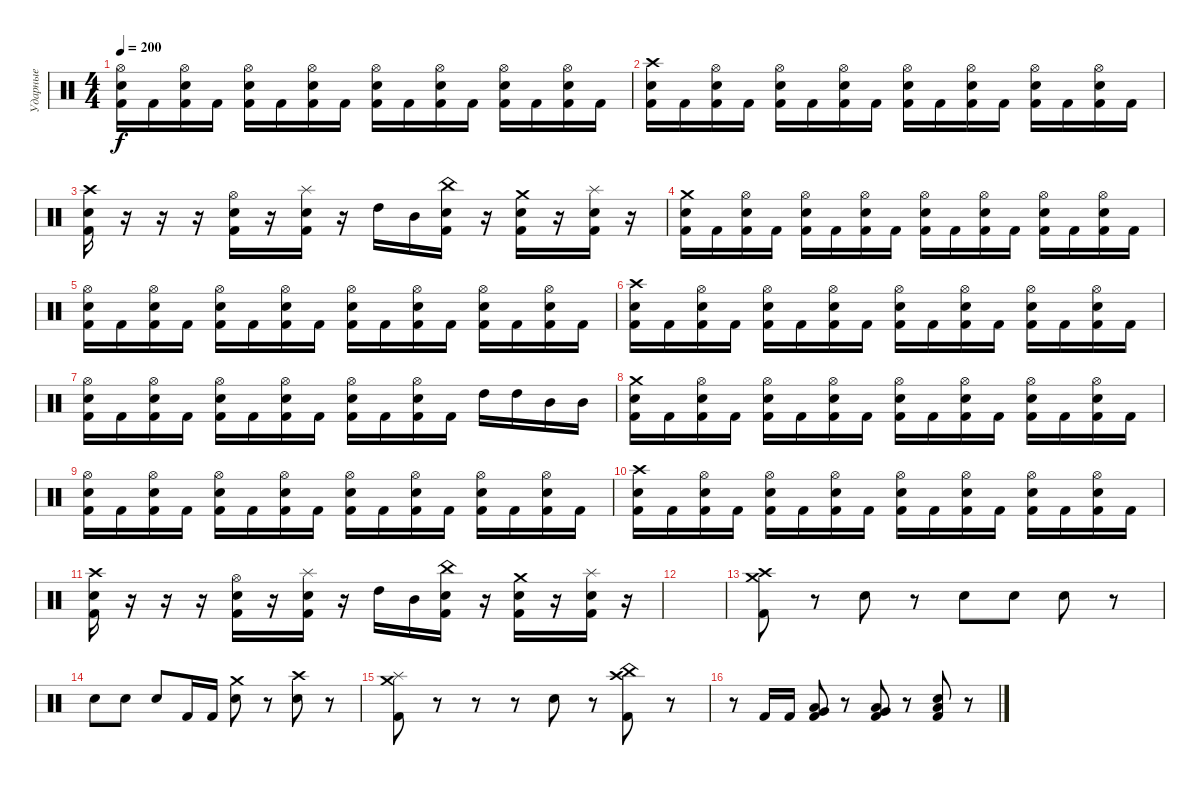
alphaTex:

\track ("Ударные" "Ударные") {instrument percussion}
\staff {score}
\articulation defaults
\ts (4 4)
\tempo 200
\clef neutral
\ks c
("Kick (hit) 2" "Electric Snare (hit)" "Hi-Hat (open)").16{dy f} "Kick (hit) 2".16 ("Kick (hit) 2" "Electric Snare (hit)" "Hi-Hat (open)").16 "Kick (hit) 2".16 ("Kick (hit) 2" "Electric Snare (hit)" "Hi-Hat (open)").16 "Kick (hit) 2".16 ("Kick (hit) 2" "Electric Snare (hit)" "Hi-Hat (open)").16 "Kick (hit) 2".16 ("Kick (hit) 2" "Electric Snare (hit)" "Hi-Hat (open)").16 "Kick (hit) 2".16 ("Kick (hit) 2" "Electric Snare (hit)" "Hi-Hat (open)").16 "Kick (hit) 2".16 ("Kick (hit) 2" "Electric Snare (hit)" "Hi-Hat (open)").16 "Kick (hit) 2".16 ("Kick (hit) 2" "Electric Snare (hit)" "Hi-Hat (open)").16 "Kick (hit) 2".16 |
("Kick (hit) 2" "Electric Snare (hit)" "Crash high (hit)").16 "Kick (hit) 2".16 ("Kick (hit) 2" "Electric Snare (hit)" "Hi-Hat (open)").16 "Kick (hit) 2".16 ("Kick (hit) 2" "Electric Snare (hit)" "Hi-Hat (open)").16 "Kick (hit) 2".16 ("Kick (hit) 2" "Electric Snare (hit)" "Hi-Hat (open)").16 "Kick (hit) 2".16 ("Kick (hit) 2" "Electric Snare (hit)" "Hi-Hat (open)").16 "Kick (hit) 2".16 ("Kick (hit) 2" "Electric Snare (hit)" "Hi-Hat (open)").16 "Kick (hit) 2".16 ("Kick (hit) 2" "Electric Snare (hit)" "Hi-Hat (open)").16 "Kick (hit) 2".16 ("Kick (hit) 2" "Electric Snare (hit)" "Hi-Hat (open)").16 "Kick (hit) 2".16 |
("Kick (hit) 2" "Electric Snare (hit)" "Crash high (hit)").16 r.16 r.16 r.16 ("Kick (hit) 2" "Electric Snare (hit)" "Hi-Hat (open)").16 r.16 ("Kick (hit) 2" "Electric Snare (hit)" "Splash (hit)").16 r.16 "High Tom (hit)".16 "Mid Tom (hit)".16 ("Kick (hit) 2" "Electric Snare (hit)" "China (hit)").16 r.16 ("Kick (hit) 2" "Electric Snare (hit)" "Crash medium (hit)").16 r.16 ("Kick (hit) 2" "Electric Snare (hit)" "Splash (hit)").16 r.16 |
("Kick (hit) 2" "Electric Snare (hit)" "Crash medium (hit)").16 "Kick (hit) 2".16 ("Kick (hit) 2" "Electric Snare (hit)" "Hi-Hat (open)").16 "Kick (hit) 2".16 ("Kick (hit) 2" "Electric Snare (hit)" "Hi-Hat (open)").16 "Kick (hit) 2".16 ("Kick (hit) 2" "Electric Snare (hit)" "Hi-Hat (open)").16 "Kick (hit) 2".16 ("Kick (hit) 2" "Electric Snare (hit)" "Hi-Hat (open)").16 "Kick (hit) 2".16 ("Kick (hit) 2" "Electric Snare (hit)" "Hi-Hat (open)").16 "Kick (hit) 2".16 ("Kick (hit) 2" "Electric Snare (hit)" "Hi-Hat (open)").16 "Kick (hit) 2".16 ("Kick (hit) 2" "Electric Snare (hit)" "Hi-Hat (open)").16 "Kick (hit) 2".16 |
("Kick (hit) 2" "Electric Snare (hit)" "Hi-Hat (open)").16 "Kick (hit) 2".16 ("Kick (hit) 2" "Electric Snare (hit)" "Hi-Hat (open)").16 "Kick (hit) 2".16 ("Kick (hit) 2" "Electric Snare (hit)" "Hi-Hat (open)").16 "Kick (hit) 2".16 ("Kick (hit) 2" "Electric Snare (hit)" "Hi-Hat (open)").16 "Kick (hit) 2".16 ("Kick (hit) 2" "Electric Snare (hit)" "Hi-Hat (open)").16 "Kick (hit) 2".16 ("Kick (hit) 2" "Electric Snare (hit)" "Hi-Hat (open)").16 "Kick (hit) 2".16 ("Kick (hit) 2" "Electric Snare (hit)" "Hi-Hat (open)").16 "Kick (hit) 2".16 ("Kick (hit) 2" "Electric Snare (hit)" "Hi-Hat (open)").16 "Kick (hit) 2".16 |
("Kick (hit) 2" "Electric Snare (hit)" "Crash high (hit)").16 "Kick (hit) 2".16 ("Kick (hit) 2" "Electric Snare (hit)" "Hi-Hat (open)").16 "Kick (hit) 2".16 ("Kick (hit) 2" "Electric Snare (hit)" "Hi-Hat (open)").16 "Kick (hit) 2".16 ("Kick (hit) 2" "Electric Snare (hit)" "Hi-Hat (open)").16 "Kick (hit) 2".16 ("Kick (hit) 2" "Electric Snare (hit)" "Hi-Hat (open)").16 "Kick (hit) 2".16 ("Kick (hit) 2" "Electric Snare (hit)" "Hi-Hat (open)").16 "Kick (hit) 2".16 ("Kick (hit) 2" "Electric Snare (hit)" "Hi-Hat (open)").16 "Kick (hit) 2".16 ("Kick (hit) 2" "Electric Snare (hit)" "Hi-Hat (open)").16 "Kick (hit) 2".16 |
("Kick (hit) 2" "Electric Snare (hit)" "Hi-Hat (open)").16 "Kick (hit) 2".16 ("Kick (hit) 2" "Electric Snare (hit)" "Hi-Hat (open)").16 "Kick (hit) 2".16 ("Kick (hit) 2" "Electric Snare (hit)" "Hi-Hat (open)").16 "Kick (hit) 2".16 ("Kick (hit) 2" "Electric Snare (hit)" "Hi-Hat (open)").16 "Kick (hit) 2".16 ("Kick (hit) 2" "Electric Snare (hit)" "Hi-Hat (open)").16 "Kick (hit) 2".16 ("Kick (hit) 2" "Electric Snare (hit)" "Hi-Hat (open)").16 "Kick (hit) 2".16 "High Tom (hit)".16 "High Tom (hit)".16 "Mid Tom (hit)".16 "Mid Tom (hit)".16 |
("Kick (hit) 2" "Electric Snare (hit)" "Crash medium (hit)").16 "Kick (hit) 2".16 ("Kick (hit) 2" "Electric Snare (hit)" "Hi-Hat (open)").16 "Kick (hit) 2".16 ("Kick (hit) 2" "Electric Snare (hit)" "Hi-Hat (open)").16 "Kick (hit) 2".16 ("Kick (hit) 2" "Electric Snare (hit)" "Hi-Hat (open)").16 "Kick (hit) 2".16 ("Kick (hit) 2" "Electric Snare (hit)" "Hi-Hat (open)").16 "Kick (hit) 2".16 ("Kick (hit) 2" "Electric Snare (hit)" "Hi-Hat (open)").16 "Kick (hit) 2".16 ("Kick (hit) 2" "Electric Snare (hit)" "Hi-Hat (open)").16 "Kick (hit) 2".16 ("Kick (hit) 2" "Electric Snare (hit)" "Hi-Hat (open)").16 "Kick (hit) 2".16 |
("Kick (hit) 2" "Electric Snare (hit)" "Hi-Hat (open)").16 "Kick (hit) 2".16 ("Kick (hit) 2" "Electric Snare (hit)" "Hi-Hat (open)").16 "Kick (hit) 2".16 ("Kick (hit) 2" "Electric Snare (hit)" "Hi-Hat (open)").16 "Kick (hit) 2".16 ("Kick (hit) 2" "Electric Snare (hit)" "Hi-Hat (open)").16 "Kick (hit) 2".16 ("Kick (hit) 2" "Electric Snare (hit)" "Hi-Hat (open)").16 "Kick (hit) 2".16 ("Kick (hit) 2" "Electric Snare (hit)" "Hi-Hat (open)").16 "Kick (hit) 2".16 ("Kick (hit) 2" "Electric Snare (hit)" "Hi-Hat (open)").16 "Kick (hit) 2".16 ("Kick (hit) 2" "Electric Snare (hit)" "Hi-Hat (open)").16 "Kick (hit) 2".16 |
("Kick (hit) 2" "Electric Snare (hit)" "Crash high (hit)").16 "Kick (hit) 2".16 ("Kick (hit) 2" "Electric Snare (hit)" "Hi-Hat (open)").16 "Kick (hit) 2".16 ("Kick (hit) 2" "Electric Snare (hit)" "Hi-Hat (open)").16 "Kick (hit) 2".16 ("Kick (hit) 2" "Electric Snare (hit)" "Hi-Hat (open)").16 "Kick (hit) 2".16 ("Kick (hit) 2" "Electric Snare (hit)" "Hi-Hat (open)").16 "Kick (hit) 2".16 ("Kick (hit) 2" "Electric Snare (hit)" "Hi-Hat (open)").16 "Kick (hit) 2".16 ("Kick (hit) 2" "Electric Snare (hit)" "Hi-Hat (open)").16 "Kick (hit) 2".16 ("Kick (hit) 2" "Electric Snare (hit)" "Hi-Hat (open)").16 "Kick (hit) 2".16 |
("Kick (hit) 2" "Electric Snare (hit)" "Crash high (hit)").16 r.16 r.16 r.16 ("Kick (hit) 2" "Electric Snare (hit)" "Hi-Hat (open)").16 r.16 ("Kick (hit) 2" "Electric Snare (hit)" "Splash (hit)").16 r.16 "High Tom (hit)".16 "Mid Tom (hit)".16 ("Kick (hit) 2" "Electric Snare (hit)" "China (hit)").16 r.16 ("Kick (hit) 2" "Electric Snare (hit)" "Crash medium (hit)").16 r.16 ("Kick (hit) 2" "Electric Snare (hit)" "Splash (hit)").16 r.16 |
|
("Kick (hit) 2" "Crash high (hit)" "Crash medium (hit)").8 r.8 "Electric Snare (hit)".8 r.8 "Electric Snare (hit)".8 "Electric Snare (hit)".8 "Electric Snare (hit)".8 r.8 |
"Electric Snare (hit)".8 "Electric Snare (hit)".8 "Electric Snare (hit)".8 "Kick (hit) 2".16 "Kick (hit) 2".16 ("Electric Snare (hit)" "Crash medium (hit)").8 r.8 ("Electric Snare (hit)" "Crash high (hit)").8 r.8 |
("Kick (hit) 2" "Crash medium (hit)" "Splash (hit)").8 r.8 r.8 r.8 "Electric Snare (hit)".8 r.8 ("Kick (hit) 2" "Crash high (hit)" "China (hit)").8 r.8 |
r.8 "Kick (hit) 2".16 "Kick (hit) 2".16 ("Kick (hit) 2" "Low Floor Tom (hit)" "Very Low Tom (hit)").8 r.8 ("Kick (hit) 2" "Low Floor Tom (hit)" "Very Low Tom (hit)").8 r.8 ("Kick (hit) 2" "Low Floor Tom (hit)" "Electric Snare (hit)").8 r.8
